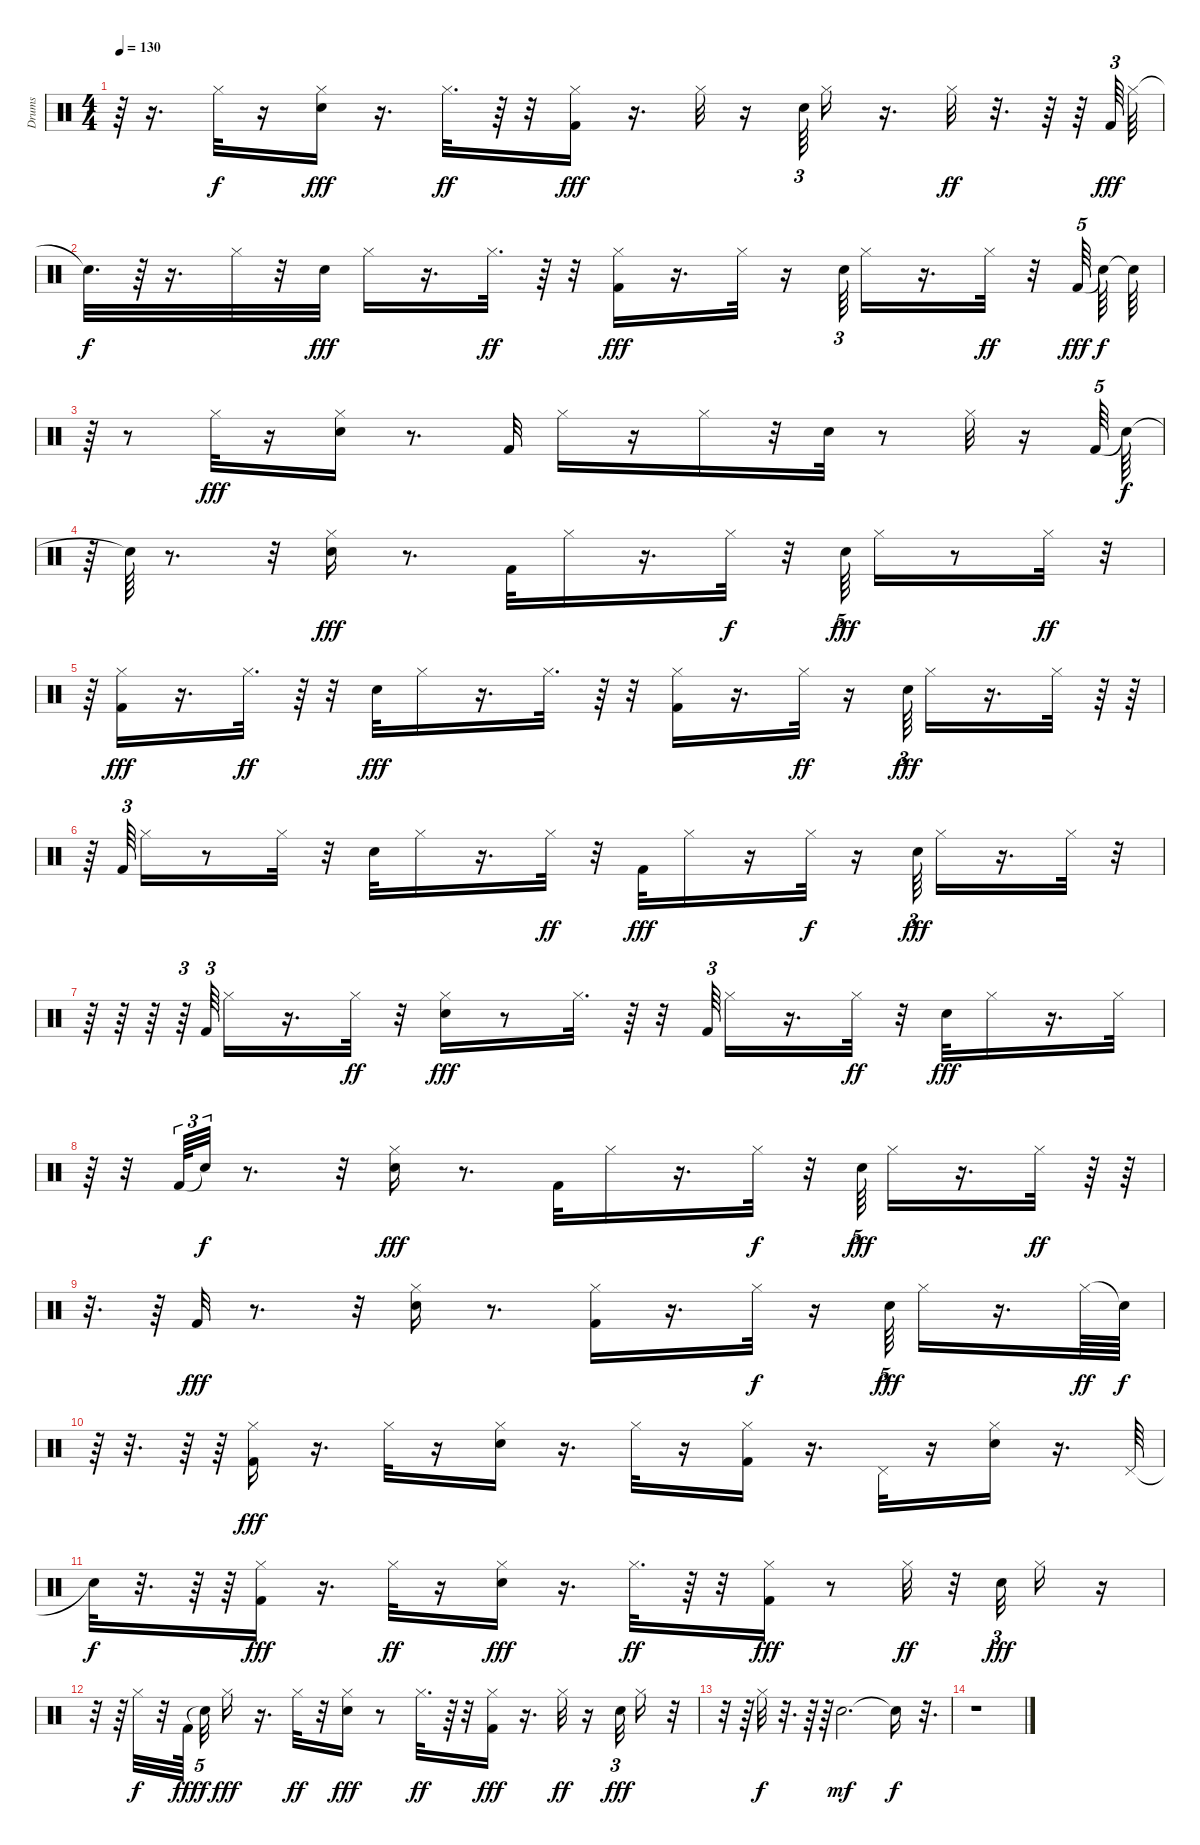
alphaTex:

\track ("Drums" "Drums") {instrument percussion}
\staff {score}
\articulation defaults
\ts (4 4)
\tempo 130
\clef neutral
\ks c
r.64{dy f} r.16{d} "Hi-Hat (closed)".32 r.16 ("Electric Snare (hit)" "Hi-Hat (closed)").16{dy fff} r.16{d} "Hi-Hat (closed)".32{d dy ff} r.64 r.32 ("Kick (hit) 2" "Hi-Hat (closed)").16{dy fff} r.16{d} "Hi-Hat (closed)".32 r.16 "Electric Snare (hit)".64{tu (3 2)} "Hi-Hat (closed)".16 r.16{d} "Hi-Hat (closed)".32{dy ff} r.32{d} r.64 r.64 "Kick (hit) 2".64{tu (3 2) dy fff} "Hi-Hat (closed)".64 |
"Snare (hit)"{t}.32{d dy f} r.64 r.16{d} "Hi-Hat (closed)".32 r.32 "Electric Snare (hit)".32{dy fff} "Hi-Hat (closed)".16 r.16{d} "Hi-Hat (closed)".32{d dy ff} r.64 r.32 ("Kick (hit) 2" "Hi-Hat (closed)").16{dy fff} r.16{d} "Hi-Hat (closed)".32 r.16 "Electric Snare (hit)".64{tu (3 2)} "Hi-Hat (closed)".16 r.16{d} "Hi-Hat (closed)".32{dy ff} r.32 "Kick (hit) 2".64{tu (5 4) dy fff} "Snare (hit)"{t}.64{dy f} "Snare (hit)"{t}.64 |
r.64 r.8 "Hi-Hat (closed)".32{dy fff} r.16 ("Hi-Hat (closed)" "Electric Snare (hit)").16 r.8{d} "Kick (hit) 2".32 "Hi-Hat (closed)".16 r.16 "Hi-Hat (closed)".16 r.32 "Electric Snare (hit)".32 r.8 "Hi-Hat (closed)".32 r.16 "Kick (hit) 2".64{tu (5 4)} "Snare (hit)"{t}.64{dy f} |
r.64 "Snare (hit)"{t}.64 r.8{d} r.32 ("Electric Snare (hit)" "Hi-Hat (closed)").16{dy fff} r.8{d} "Kick (hit) 2".32 "Hi-Hat (closed)".16 r.16{d} "Hi-Hat (closed)".32{dy f} r.32 "Electric Snare (hit)".64{tu (5 4) dy fff} "Hi-Hat (closed)".16 r.8 "Hi-Hat (closed)".32{dy ff} r.32 |
r.64 ("Kick (hit) 2" "Hi-Hat (closed)").16{dy fff} r.16{d} "Hi-Hat (closed)".32{d dy ff} r.64 r.32 "Electric Snare (hit)".32{dy fff} "Hi-Hat (closed)".16 r.16{d} "Hi-Hat (closed)".32{d} r.64 r.32 ("Kick (hit) 2" "Hi-Hat (closed)").16 r.16{d} "Hi-Hat (closed)".32{dy ff} r.16 "Electric Snare (hit)".64{tu (3 2) dy fff} "Hi-Hat (closed)".16 r.16{d} "Hi-Hat (closed)".32 r.64 r.64 |
r.64 "Kick (hit) 2".64{tu (3 2)} "Hi-Hat (closed)".16 r.8 "Hi-Hat (closed)".32 r.32 "Electric Snare (hit)".32 "Hi-Hat (closed)".16 r.16{d} "Hi-Hat (closed)".32{dy ff} r.32 "Kick (hit) 2".32{dy fff} "Hi-Hat (closed)".16 r.16 "Hi-Hat (closed)".32{dy f} r.16 "Electric Snare (hit)".64{tu (3 2) dy fff} "Hi-Hat (closed)".16 r.16{d} "Hi-Hat (closed)".32 r.32 |
r.64 r.64 r.64 r.64{tu (3 2)} "Kick (hit) 2".64{tu (3 2)} "Hi-Hat (closed)".16 r.16{d} "Hi-Hat (closed)".32{dy ff} r.32 ("Electric Snare (hit)" "Hi-Hat (closed)").16{dy fff} r.8 "Hi-Hat (closed)".32{d} r.64 r.32 "Kick (hit) 2".64{tu (3 2)} "Hi-Hat (closed)".16 r.16{d} "Hi-Hat (closed)".32{dy ff} r.32 "Electric Snare (hit)".32{dy fff} "Hi-Hat (closed)".16 r.16{d} "Hi-Hat (closed)".32 |
r.64 r.32 "Kick (hit) 2".64{tu (3 2)} "Snare (hit)"{t}.32{tu (3 2) dy f} r.8{d} r.32 ("Electric Snare (hit)" "Hi-Hat (closed)").16{dy fff} r.8{d} "Kick (hit) 2".32 "Hi-Hat (closed)".16 r.16{d} "Hi-Hat (closed)".32{dy f} r.32 "Electric Snare (hit)".64{tu (5 4) dy fff} "Hi-Hat (closed)".16 r.16{d} "Hi-Hat (closed)".32{dy ff} r.64 r.64 |
r.32{d} r.64 "Kick (hit) 2".32{dy fff} r.8{d} r.32 ("Electric Snare (hit)" "Hi-Hat (closed)").16 r.8{d} ("Kick (hit) 2" "Hi-Hat (closed)").16 r.16{d} "Hi-Hat (closed)".32{dy f} r.16 "Electric Snare (hit)".64{tu (5 4) dy fff} "Hi-Hat (closed)".16 r.16{d} "Hi-Hat (closed)".64{dy ff} "Snare (hit)"{t}.64{dy f} |
r.64 r.32{d} r.64 r.64 ("Kick (hit) 2" "Hi-Hat (closed)").16{dy fff} r.16{d} "Hi-Hat (closed)".32 r.16 ("Electric Snare (hit)" "Hi-Hat (closed)").16 r.16{d} "Hi-Hat (closed)".32 r.16 ("Kick (hit) 2" "Hi-Hat (closed)").16 r.16{d} "Pedal Hi-Hat (hit)".32 r.16 ("Electric Snare (hit)" "Hi-Hat (closed)").16 r.16{d} "Pedal Hi-Hat (hit)".64 |
"Snare (hit)"{t}.32{dy f} r.32{d} r.64 r.64 ("Kick (hit) 2" "Hi-Hat (closed)").16{dy fff} r.16{d} "Hi-Hat (closed)".32{dy ff} r.16 ("Electric Snare (hit)" "Hi-Hat (closed)").16{dy fff} r.16{d} "Hi-Hat (closed)".32{d dy ff} r.64 r.32 ("Kick (hit) 2" "Hi-Hat (closed)").16{dy fff} r.8 "Hi-Hat (closed)".32{dy ff} r.32 "Electric Snare (hit)".32{tu (3 2) dy fff} "Hi-Hat (closed)".16 r.16 |
r.32 r.64 "Hi-Hat (closed)".32{dy f} r.32 "Kick (hit) 2".64{dy fff beam splitsecondary} "Snare (hit)"{t}.32{tu (5 4) dy f} "Hi-Hat (closed)".16{dy fff} r.16{d} "Hi-Hat (closed)".32{dy ff} r.32 ("Electric Snare (hit)" "Hi-Hat (closed)").16{dy fff} r.8 "Hi-Hat (closed)".32{d dy ff} r.64 r.32 ("Kick (hit) 2" "Hi-Hat (closed)").16{dy fff} r.16{d} "Hi-Hat (closed)".32{dy ff} r.16 "Electric Snare (hit)".32{tu (3 2) dy fff} "Hi-Hat (closed)".16 r.32 |
r.32 r.64 "Hi-Hat (closed)".32{dy f} r.32{d} r.64 r.64 "Electric Snare (hit)".2{d dy mf} "Snare (hit)"{t}.16{dy f} r.32{d} |
r.1
